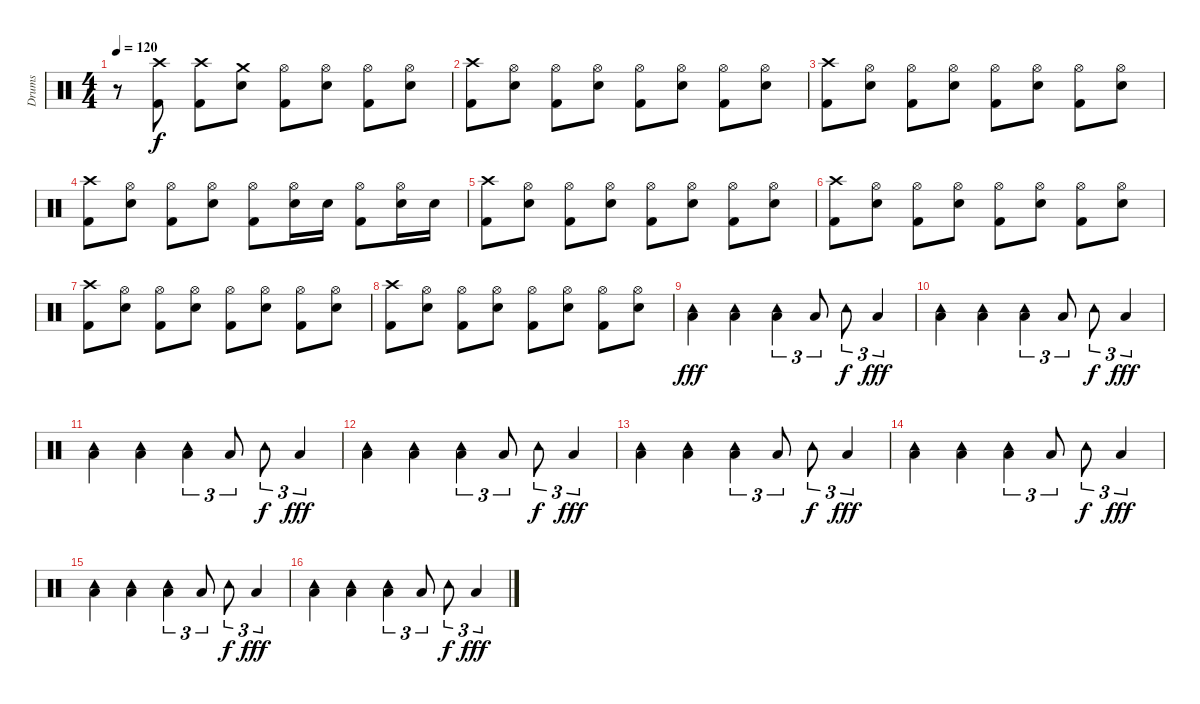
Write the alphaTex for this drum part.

\track ("Drums" "Drums") {instrument percussion}
\staff {score}
\articulation defaults
\ts (4 4)
\tempo 120
\clef neutral
\ks c
r.8{dy f} ("Crash high (hit)" "Kick (hit) 2").8 ("Crash high (hit)" "Kick (hit) 2").8 ("Crash medium (hit)" "Snare (hit) 2").8 ("Hi-Hat (open)" "Kick (hit) 2").8 ("Hi-Hat (open)" "Snare (hit) 2").8 ("Hi-Hat (open)" "Kick (hit) 2").8 ("Hi-Hat (open)" "Snare (hit) 2").8 |
("Crash high (hit)" "Kick (hit) 2").8{volume 16} ("Hi-Hat (open)" "Snare (hit) 2").8 ("Hi-Hat (open)" "Kick (hit) 2").8 ("Hi-Hat (open)" "Snare (hit) 2").8 ("Hi-Hat (open)" "Kick (hit) 2").8 ("Hi-Hat (open)" "Snare (hit) 2").8 ("Hi-Hat (open)" "Kick (hit) 2").8 ("Hi-Hat (open)" "Snare (hit) 2").8 |
("Crash high (hit)" "Kick (hit) 2").8{volume 16} ("Hi-Hat (open)" "Snare (hit) 2").8 ("Hi-Hat (open)" "Kick (hit) 2").8 ("Hi-Hat (open)" "Snare (hit) 2").8 ("Hi-Hat (open)" "Kick (hit) 2").8 ("Hi-Hat (open)" "Snare (hit) 2").8 ("Hi-Hat (open)" "Kick (hit) 2").8 ("Hi-Hat (open)" "Snare (hit) 2").8 |
("Crash high (hit)" "Kick (hit) 2").8{volume 16} ("Hi-Hat (open)" "Snare (hit) 2").8 ("Hi-Hat (open)" "Kick (hit) 2").8 ("Hi-Hat (open)" "Snare (hit) 2").8 ("Hi-Hat (open)" "Kick (hit) 2").8 ("Hi-Hat (open)" "Snare (hit) 2").16 "Snare (hit) 2".16 ("Hi-Hat (open)" "Kick (hit) 2").8 ("Hi-Hat (open)" "Snare (hit) 2").16 "Snare (hit) 2".16 |
("Crash high (hit)" "Kick (hit) 2").8{volume 16} ("Hi-Hat (open)" "Snare (hit) 2").8 ("Hi-Hat (open)" "Kick (hit) 2").8 ("Hi-Hat (open)" "Snare (hit) 2").8 ("Hi-Hat (open)" "Kick (hit) 2").8 ("Hi-Hat (open)" "Snare (hit) 2").8 ("Hi-Hat (open)" "Kick (hit) 2").8 ("Hi-Hat (open)" "Snare (hit) 2").8 |
("Crash high (hit)" "Kick (hit) 2").8{volume 16} ("Hi-Hat (open)" "Snare (hit) 2").8 ("Hi-Hat (open)" "Kick (hit) 2").8 ("Hi-Hat (open)" "Snare (hit) 2").8 ("Hi-Hat (open)" "Kick (hit) 2").8 ("Hi-Hat (open)" "Snare (hit) 2").8 ("Hi-Hat (open)" "Kick (hit) 2").8 ("Hi-Hat (open)" "Snare (hit) 2").8 |
("Crash high (hit)" "Kick (hit) 2").8{volume 16} ("Hi-Hat (open)" "Snare (hit) 2").8 ("Hi-Hat (open)" "Kick (hit) 2").8 ("Hi-Hat (open)" "Snare (hit) 2").8 ("Hi-Hat (open)" "Kick (hit) 2").8 ("Hi-Hat (open)" "Snare (hit) 2").8 ("Hi-Hat (open)" "Kick (hit) 2").8 ("Hi-Hat (open)" "Snare (hit) 2").8 |
("Crash high (hit)" "Kick (hit) 2").8{volume 16} ("Hi-Hat (open)" "Snare (hit) 2").8 ("Hi-Hat (open)" "Kick (hit) 2").8 ("Hi-Hat (open)" "Snare (hit) 2").8 ("Hi-Hat (open)" "Kick (hit) 2").8 ("Hi-Hat (open)" "Snare (hit) 2").8 ("Hi-Hat (open)" "Kick (hit) 2").8 ("Hi-Hat (open)" "Snare (hit) 2").8 |
("Tambourine (hit)" "Low Tom (hit)").4{dy fff} ("Tambourine (hit)" "Low Tom (hit)").4 ("Tambourine (hit)" "Low Tom (hit)").4{tu (3 2)} "Low Tom (hit)".8{tu (3 2)} "Tambourine (hit)".8{tu (3 2) dy f} "Low Tom (hit)".4{tu (3 2) dy fff} |
("Tambourine (hit)" "Low Tom (hit)").4 ("Tambourine (hit)" "Low Tom (hit)").4 ("Tambourine (hit)" "Low Tom (hit)").4{tu (3 2)} "Low Tom (hit)".8{tu (3 2)} "Tambourine (hit)".8{tu (3 2) dy f} "Low Tom (hit)".4{tu (3 2) dy fff} |
("Tambourine (hit)" "Low Tom (hit)").4 ("Tambourine (hit)" "Low Tom (hit)").4 ("Tambourine (hit)" "Low Tom (hit)").4{tu (3 2)} "Low Tom (hit)".8{tu (3 2)} "Tambourine (hit)".8{tu (3 2) dy f} "Low Tom (hit)".4{tu (3 2) dy fff} |
("Tambourine (hit)" "Low Tom (hit)").4 ("Tambourine (hit)" "Low Tom (hit)").4 ("Tambourine (hit)" "Low Tom (hit)").4{tu (3 2)} "Low Tom (hit)".8{tu (3 2)} "Tambourine (hit)".8{tu (3 2) dy f} "Low Tom (hit)".4{tu (3 2) dy fff} |
("Tambourine (hit)" "Low Tom (hit)").4 ("Tambourine (hit)" "Low Tom (hit)").4 ("Tambourine (hit)" "Low Tom (hit)").4{tu (3 2)} "Low Tom (hit)".8{tu (3 2)} "Tambourine (hit)".8{tu (3 2) dy f} "Low Tom (hit)".4{tu (3 2) dy fff} |
("Tambourine (hit)" "Low Tom (hit)").4 ("Tambourine (hit)" "Low Tom (hit)").4 ("Tambourine (hit)" "Low Tom (hit)").4{tu (3 2)} "Low Tom (hit)".8{tu (3 2)} "Tambourine (hit)".8{tu (3 2) dy f} "Low Tom (hit)".4{tu (3 2) dy fff} |
("Tambourine (hit)" "Low Tom (hit)").4 ("Tambourine (hit)" "Low Tom (hit)").4 ("Tambourine (hit)" "Low Tom (hit)").4{tu (3 2)} "Low Tom (hit)".8{tu (3 2)} "Tambourine (hit)".8{tu (3 2) dy f} "Low Tom (hit)".4{tu (3 2) dy fff} |
("Tambourine (hit)" "Low Tom (hit)").4 ("Tambourine (hit)" "Low Tom (hit)").4 ("Tambourine (hit)" "Low Tom (hit)").4{tu (3 2)} "Low Tom (hit)".8{tu (3 2)} "Tambourine (hit)".8{tu (3 2) dy f} "Low Tom (hit)".4{tu (3 2) dy fff volume 2}
